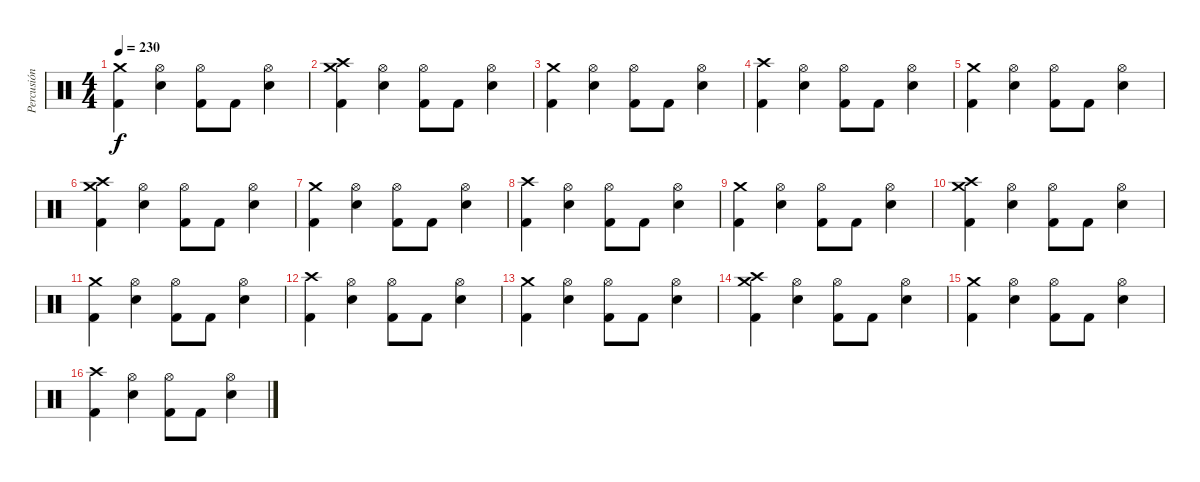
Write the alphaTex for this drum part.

\track ("Percusión" "Percusión") {instrument percussion}
\staff {score}
\articulation defaults
\ts (4 4)
\tempo 230
\clef neutral
\ks c
("Crash medium (hit)" "Kick (hit) 2").4{dy f} ("Hi-Hat (open)" "Snare (hit) 2").4 ("Hi-Hat (open)" "Kick (hit) 2").8 "Kick (hit) 2".8 ("Hi-Hat (open)" "Snare (hit) 2").4 |
("Crash medium (hit)" "Crash high (hit)" "Kick (hit) 2").4 ("Hi-Hat (open)" "Snare (hit) 2").4 ("Hi-Hat (open)" "Kick (hit) 2").8 "Kick (hit) 2".8 ("Hi-Hat (open)" "Snare (hit) 2").4 |
("Crash medium (hit)" "Kick (hit) 2").4 ("Hi-Hat (open)" "Snare (hit) 2").4 ("Hi-Hat (open)" "Kick (hit) 2").8 "Kick (hit) 2".8 ("Hi-Hat (open)" "Snare (hit) 2").4 |
("Crash high (hit)" "Kick (hit) 2").4 ("Hi-Hat (open)" "Snare (hit) 2").4 ("Hi-Hat (open)" "Kick (hit) 2").8 "Kick (hit) 2".8 ("Hi-Hat (open)" "Snare (hit) 2").4 |
("Crash medium (hit)" "Kick (hit) 2").4 ("Hi-Hat (open)" "Snare (hit) 2").4 ("Hi-Hat (open)" "Kick (hit) 2").8 "Kick (hit) 2".8 ("Hi-Hat (open)" "Snare (hit) 2").4 |
("Crash medium (hit)" "Crash high (hit)" "Kick (hit) 2").4 ("Hi-Hat (open)" "Snare (hit) 2").4 ("Hi-Hat (open)" "Kick (hit) 2").8 "Kick (hit) 2".8 ("Hi-Hat (open)" "Snare (hit) 2").4 |
("Crash medium (hit)" "Kick (hit) 2").4 ("Hi-Hat (open)" "Snare (hit) 2").4 ("Hi-Hat (open)" "Kick (hit) 2").8 "Kick (hit) 2".8 ("Hi-Hat (open)" "Snare (hit) 2").4 |
("Crash high (hit)" "Kick (hit) 2").4 ("Hi-Hat (open)" "Snare (hit) 2").4 ("Hi-Hat (open)" "Kick (hit) 2").8 "Kick (hit) 2".8 ("Hi-Hat (open)" "Snare (hit) 2").4 |
("Crash medium (hit)" "Kick (hit) 2").4 ("Hi-Hat (open)" "Snare (hit) 2").4 ("Hi-Hat (open)" "Kick (hit) 2").8 "Kick (hit) 2".8 ("Hi-Hat (open)" "Snare (hit) 2").4 |
("Crash medium (hit)" "Crash high (hit)" "Kick (hit) 2").4 ("Hi-Hat (open)" "Snare (hit) 2").4 ("Hi-Hat (open)" "Kick (hit) 2").8 "Kick (hit) 2".8 ("Hi-Hat (open)" "Snare (hit) 2").4 |
("Crash medium (hit)" "Kick (hit) 2").4 ("Hi-Hat (open)" "Snare (hit) 2").4 ("Hi-Hat (open)" "Kick (hit) 2").8 "Kick (hit) 2".8 ("Hi-Hat (open)" "Snare (hit) 2").4 |
("Crash high (hit)" "Kick (hit) 2").4 ("Hi-Hat (open)" "Snare (hit) 2").4 ("Hi-Hat (open)" "Kick (hit) 2").8 "Kick (hit) 2".8 ("Hi-Hat (open)" "Snare (hit) 2").4 |
("Crash medium (hit)" "Kick (hit) 2").4 ("Hi-Hat (open)" "Snare (hit) 2").4 ("Hi-Hat (open)" "Kick (hit) 2").8 "Kick (hit) 2".8 ("Hi-Hat (open)" "Snare (hit) 2").4 |
("Crash medium (hit)" "Crash high (hit)" "Kick (hit) 2").4 ("Hi-Hat (open)" "Snare (hit) 2").4 ("Hi-Hat (open)" "Kick (hit) 2").8 "Kick (hit) 2".8 ("Hi-Hat (open)" "Snare (hit) 2").4 |
("Crash medium (hit)" "Kick (hit) 2").4 ("Hi-Hat (open)" "Snare (hit) 2").4 ("Hi-Hat (open)" "Kick (hit) 2").8 "Kick (hit) 2".8 ("Hi-Hat (open)" "Snare (hit) 2").4 |
("Crash high (hit)" "Kick (hit) 2").4 ("Hi-Hat (open)" "Snare (hit) 2").4 ("Hi-Hat (open)" "Kick (hit) 2").8 "Kick (hit) 2".8 ("Hi-Hat (open)" "Snare (hit) 2").4
